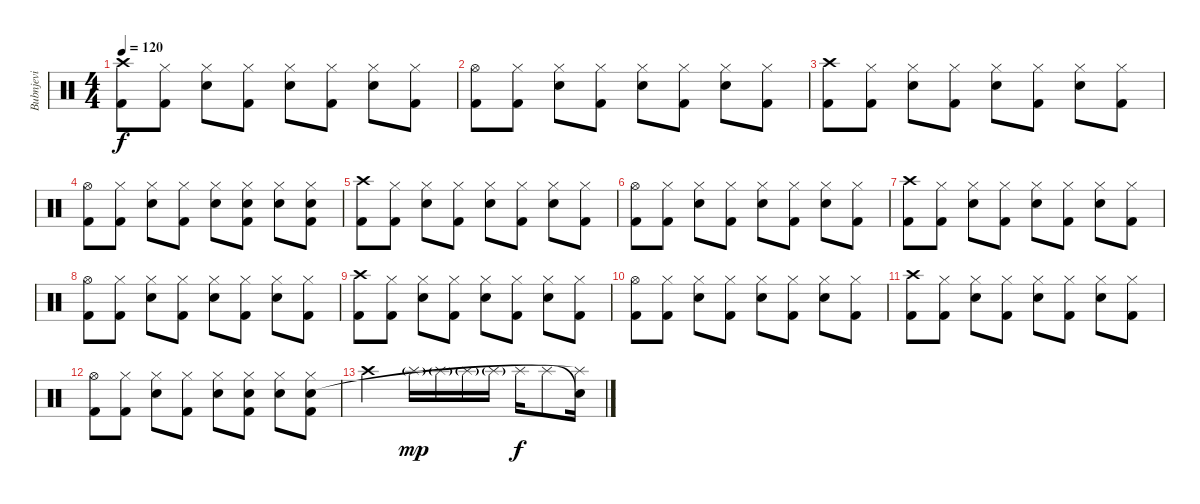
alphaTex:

\track ("Bubnjevi" "Bubnjevi") {instrument percussion}
\staff {score}
\articulation defaults
\ts (4 4)
\tempo 120
\clef neutral
\ks c
("Crash high (hit)" "Kick (hit) 2").8{dy f} ("Hi-Hat (closed)" "Kick (hit) 2").8 ("Hi-Hat (closed)" "Snare (hit) 2").8 ("Hi-Hat (closed)" "Kick (hit) 2").8 ("Hi-Hat (closed)" "Snare (hit) 2").8 ("Hi-Hat (closed)" "Kick (hit) 2").8 ("Hi-Hat (closed)" "Snare (hit) 2").8 ("Hi-Hat (closed)" "Kick (hit) 2").8 |
("Hi-Hat (open)" "Kick (hit) 2").8 ("Hi-Hat (closed)" "Kick (hit) 2").8 ("Hi-Hat (closed)" "Snare (hit) 2").8 ("Hi-Hat (closed)" "Kick (hit) 2").8 ("Hi-Hat (closed)" "Snare (hit) 2").8 ("Hi-Hat (closed)" "Kick (hit) 2").8 ("Hi-Hat (closed)" "Snare (hit) 2").8 ("Hi-Hat (closed)" "Kick (hit) 2").8 |
("Crash high (hit)" "Kick (hit) 2").8 ("Hi-Hat (closed)" "Kick (hit) 2").8 ("Hi-Hat (closed)" "Snare (hit) 2").8 ("Hi-Hat (closed)" "Kick (hit) 2").8 ("Hi-Hat (closed)" "Snare (hit) 2").8 ("Hi-Hat (closed)" "Kick (hit) 2").8 ("Hi-Hat (closed)" "Snare (hit) 2").8 ("Hi-Hat (closed)" "Kick (hit) 2").8 |
("Hi-Hat (open)" "Kick (hit) 2").8 ("Hi-Hat (closed)" "Kick (hit) 2").8 ("Hi-Hat (closed)" "Snare (hit) 2").8 ("Hi-Hat (closed)" "Kick (hit) 2").8 ("Hi-Hat (closed)" "Snare (hit) 2").8 ("Hi-Hat (closed)" "Snare (hit) 2" "Kick (hit) 2").8 ("Hi-Hat (closed)" "Snare (hit) 2").8 ("Hi-Hat (closed)" "Snare (hit) 2" "Kick (hit) 2").8 |
("Crash high (hit)" "Kick (hit) 2").8 ("Hi-Hat (closed)" "Kick (hit) 2").8 ("Hi-Hat (closed)" "Snare (hit) 2").8 ("Hi-Hat (closed)" "Kick (hit) 2").8 ("Hi-Hat (closed)" "Snare (hit) 2").8 ("Hi-Hat (closed)" "Kick (hit) 2").8 ("Hi-Hat (closed)" "Snare (hit) 2").8 ("Hi-Hat (closed)" "Kick (hit) 2").8 |
("Hi-Hat (open)" "Kick (hit) 2").8 ("Hi-Hat (closed)" "Kick (hit) 2").8 ("Hi-Hat (closed)" "Snare (hit) 2").8 ("Hi-Hat (closed)" "Kick (hit) 2").8 ("Hi-Hat (closed)" "Snare (hit) 2").8 ("Hi-Hat (closed)" "Kick (hit) 2").8 ("Hi-Hat (closed)" "Snare (hit) 2").8 ("Hi-Hat (closed)" "Kick (hit) 2").8 |
("Crash high (hit)" "Kick (hit) 2").8 ("Hi-Hat (closed)" "Kick (hit) 2").8 ("Hi-Hat (closed)" "Snare (hit) 2").8 ("Hi-Hat (closed)" "Kick (hit) 2").8 ("Hi-Hat (closed)" "Snare (hit) 2").8 ("Hi-Hat (closed)" "Kick (hit) 2").8 ("Hi-Hat (closed)" "Snare (hit) 2").8 ("Hi-Hat (closed)" "Kick (hit) 2").8 |
("Hi-Hat (open)" "Kick (hit) 2").8 ("Hi-Hat (closed)" "Kick (hit) 2").8 ("Hi-Hat (closed)" "Snare (hit) 2").8 ("Hi-Hat (closed)" "Kick (hit) 2").8 ("Hi-Hat (closed)" "Snare (hit) 2").8 ("Hi-Hat (closed)" "Kick (hit) 2").8 ("Hi-Hat (closed)" "Snare (hit) 2").8 ("Hi-Hat (closed)" "Kick (hit) 2").8 |
("Crash high (hit)" "Kick (hit) 2").8 ("Hi-Hat (closed)" "Kick (hit) 2").8 ("Hi-Hat (closed)" "Snare (hit) 2").8 ("Hi-Hat (closed)" "Kick (hit) 2").8 ("Hi-Hat (closed)" "Snare (hit) 2").8 ("Hi-Hat (closed)" "Kick (hit) 2").8 ("Hi-Hat (closed)" "Snare (hit) 2").8 ("Hi-Hat (closed)" "Kick (hit) 2").8 |
("Hi-Hat (open)" "Kick (hit) 2").8 ("Hi-Hat (closed)" "Kick (hit) 2").8 ("Hi-Hat (closed)" "Snare (hit) 2").8 ("Hi-Hat (closed)" "Kick (hit) 2").8 ("Hi-Hat (closed)" "Snare (hit) 2").8 ("Hi-Hat (closed)" "Kick (hit) 2").8 ("Hi-Hat (closed)" "Snare (hit) 2").8 ("Hi-Hat (closed)" "Kick (hit) 2").8 |
("Crash high (hit)" "Kick (hit) 2").8 ("Hi-Hat (closed)" "Kick (hit) 2").8 ("Hi-Hat (closed)" "Snare (hit) 2").8 ("Hi-Hat (closed)" "Kick (hit) 2").8 ("Hi-Hat (closed)" "Snare (hit) 2").8 ("Hi-Hat (closed)" "Kick (hit) 2").8 ("Hi-Hat (closed)" "Snare (hit) 2").8 ("Hi-Hat (closed)" "Kick (hit) 2").8 |
("Hi-Hat (open)" "Kick (hit) 2").8 ("Hi-Hat (closed)" "Kick (hit) 2").8 ("Hi-Hat (closed)" "Snare (hit) 2").8 ("Hi-Hat (closed)" "Kick (hit) 2").8 ("Hi-Hat (closed)" "Snare (hit) 2").8 ("Hi-Hat (closed)" "Snare (hit) 2" "Kick (hit) 2").8 ("Hi-Hat (closed)" "Snare (hit) 2").8 ("Hi-Hat (closed)" "Snare (hit) 2" "Kick (hit) 2").8 |
"Crash high (hit)".2 "Splash (hit)"{g}.16{dy mp} "Splash (hit)"{g}.16 "Splash (hit)"{g}.16 "Splash (hit)"{g}.16 "Splash (hit)".16{dy f} "Splash (hit)".8 ("Snare (hit)"{t} "Splash (hit)"{t}).16
